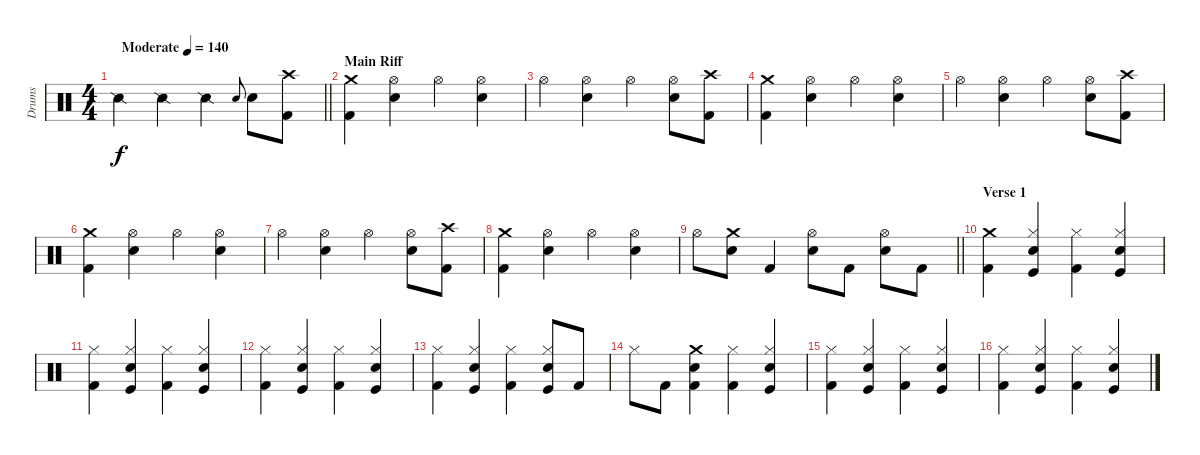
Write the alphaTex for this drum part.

\track ("Drums" "Drums") {instrument percussion}
\staff {score}
\articulation defaults
\ts (4 4)
\tempo (140 "Moderate")
\clef neutral
\barLineRight lightlight
\ks c "Snare (side stick) 2".4{dy f} "Snare (side stick) 2".4 "Snare (side stick) 2".4 "Electric Snare (hit)".8{gr onbeat} "Electric Snare (hit)".8
("Crash high (hit)" "Kick (hit) 2").8 |
\section ("" "Main Riff")
("Crash medium (hit)" "Kick (hit) 2").4 ("Hi-Hat (open)" "Electric Snare (hit)").4 "Hi-Hat (open)".4 ("Hi-Hat (open)" "Electric Snare (hit)").4 |
"Hi-Hat (open)".4 ("Hi-Hat (open)" "Electric Snare (hit)").4 "Hi-Hat (open)".4 ("Hi-Hat (open)" "Electric Snare (hit)").8 ("Crash high (hit)" "Kick (hit) 2").8 |
("Crash medium (hit)" "Kick (hit) 2").4 ("Hi-Hat (open)" "Electric Snare (hit)").4 "Hi-Hat (open)".4 ("Hi-Hat (open)" "Electric Snare (hit)").4 |
"Hi-Hat (open)".4 ("Hi-Hat (open)" "Electric Snare (hit)").4 "Hi-Hat (open)".4 ("Hi-Hat (open)" "Electric Snare (hit)").8 ("Crash high (hit)" "Kick (hit) 2").8 |
("Crash medium (hit)" "Kick (hit) 2").4 ("Hi-Hat (open)" "Electric Snare (hit)").4 "Hi-Hat (open)".4 ("Hi-Hat (open)" "Electric Snare (hit)").4 |
"Hi-Hat (open)".4 ("Hi-Hat (open)" "Electric Snare (hit)").4 "Hi-Hat (open)".4 ("Hi-Hat (open)" "Electric Snare (hit)").8 ("Crash high (hit)" "Kick (hit) 2").8 |
("Crash medium (hit)" "Kick (hit) 2").4 ("Hi-Hat (open)" "Electric Snare (hit)").4 "Hi-Hat (open)".4 ("Hi-Hat (open)" "Electric Snare (hit)").4 |
\barLineRight lightlight "Hi-Hat (open)".8
("Crash medium (hit)" "Electric Snare (hit)").8 "Kick (hit) 2".4 ("Hi-Hat (open)" "Electric Snare (hit)").8 "Kick (hit) 2".8 ("Hi-Hat (open)" "Electric Snare (hit)").8 "Kick (hit) 2".8 |
\section ("" "Verse 1")
("Crash medium (hit)" "Kick (hit) 2").4 ("Hi-Hat (closed)" "Electric Snare (hit)" "Kick (hit)").4 ("Hi-Hat (closed)" "Kick (hit) 2").4 ("Hi-Hat (closed)" "Electric Snare (hit)" "Kick (hit)").4 |
("Hi-Hat (closed)" "Kick (hit) 2").4 ("Hi-Hat (closed)" "Electric Snare (hit)" "Kick (hit)").4 ("Hi-Hat (closed)" "Kick (hit) 2").4 ("Hi-Hat (closed)" "Electric Snare (hit)" "Kick (hit)").4 |
("Hi-Hat (closed)" "Kick (hit) 2").4 ("Hi-Hat (closed)" "Electric Snare (hit)" "Kick (hit)").4 ("Hi-Hat (closed)" "Kick (hit) 2").4 ("Hi-Hat (closed)" "Electric Snare (hit)" "Kick (hit)").4 |
("Hi-Hat (closed)" "Kick (hit) 2").4 ("Hi-Hat (closed)" "Electric Snare (hit)" "Kick (hit)").4 ("Hi-Hat (closed)" "Kick (hit) 2").4 ("Hi-Hat (closed)" "Electric Snare (hit)" "Kick (hit)").8 "Kick (hit) 2".8 |
"Hi-Hat (closed)".8 "Kick (hit) 2".8 ("Crash medium (hit)" "Electric Snare (hit)" "Kick (hit) 2").4 ("Hi-Hat (closed)" "Kick (hit) 2").4 ("Hi-Hat (closed)" "Electric Snare (hit)" "Kick (hit)").4 |
("Hi-Hat (closed)" "Kick (hit) 2").4 ("Hi-Hat (closed)" "Electric Snare (hit)" "Kick (hit)").4 ("Hi-Hat (closed)" "Kick (hit) 2").4 ("Hi-Hat (closed)" "Electric Snare (hit)" "Kick (hit)").4 |
("Hi-Hat (closed)" "Kick (hit) 2").4 ("Hi-Hat (closed)" "Electric Snare (hit)" "Kick (hit)").4 ("Hi-Hat (closed)" "Kick (hit) 2").4 ("Hi-Hat (closed)" "Electric Snare (hit)" "Kick (hit)").4
